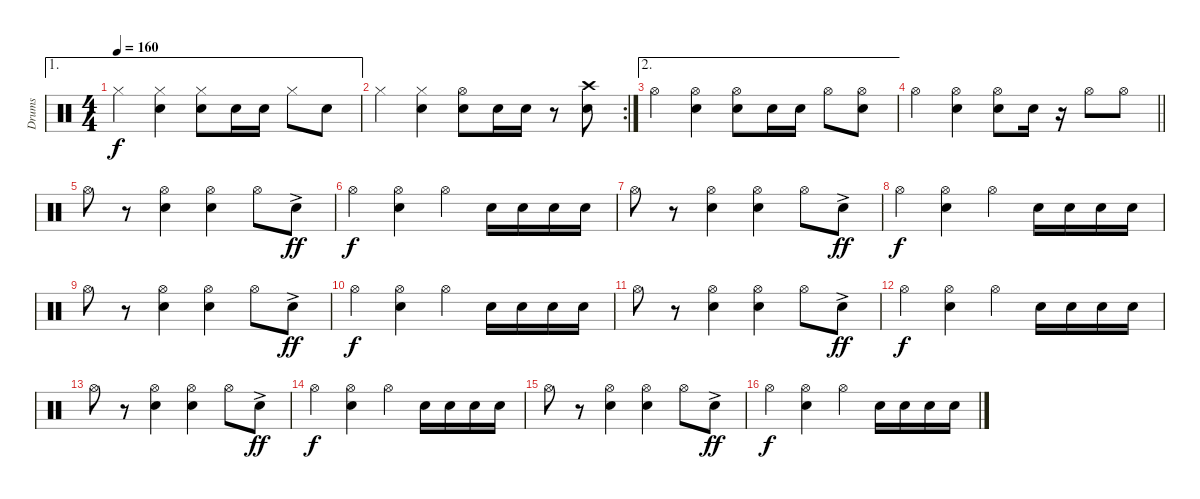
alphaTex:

\track ("Drums" "Drums") {instrument percussion}
\staff {score}
\articulation defaults
\ae 1
\ts (4 4)
\tempo 160
\clef neutral
\ks c "Hi-Hat (closed)".4{dy f}
("Hi-Hat (closed)" "Electric Snare (hit)").4 ("Hi-Hat (closed)" "Electric Snare (hit)").8 "Electric Snare (hit)".16 "Electric Snare (hit)".16 "Hi-Hat (closed)".8 "Electric Snare (hit)".8 |
\rc 2 "Hi-Hat (closed)".4
("Hi-Hat (closed)" "Electric Snare (hit)").4 ("Hi-Hat (open)" "Electric Snare (hit)").8 "Electric Snare (hit)".16 "Electric Snare (hit)".16 r.8 ("Crash high (hit)" "Electric Snare (hit)").8 |
\ae 2 "Hi-Hat (open)".4
("Hi-Hat (open)" "Electric Snare (hit)").4 ("Hi-Hat (open)" "Electric Snare (hit)").8 "Electric Snare (hit)".16 "Electric Snare (hit)".16 "Hi-Hat (open)".8 ("Hi-Hat (open)" "Electric Snare (hit)").8 |
\barLineRight lightlight "Hi-Hat (open)".4
("Hi-Hat (open)" "Electric Snare (hit)").4 ("Hi-Hat (open)" "Electric Snare (hit)").8 "Electric Snare (hit)".16 r.16 "Hi-Hat (open)".8 "Hi-Hat (open)".8 |
"Hi-Hat (open)".8 r.8 ("Hi-Hat (open)" "Electric Snare (hit)").4 ("Hi-Hat (open)" "Electric Snare (hit)").4 "Hi-Hat (open)".8 "Electric Snare (hit)"{ac}.8{dy ff} |
"Hi-Hat (open)".4{dy f} ("Hi-Hat (open)" "Electric Snare (hit)").4 "Hi-Hat (open)".4 "Electric Snare (hit)".16 "Electric Snare (hit)".16 "Electric Snare (hit)".16 "Electric Snare (hit)".16 |
"Hi-Hat (open)".8 r.8 ("Hi-Hat (open)" "Electric Snare (hit)").4 ("Hi-Hat (open)" "Electric Snare (hit)").4 "Hi-Hat (open)".8 "Electric Snare (hit)"{ac}.8{dy ff} |
"Hi-Hat (open)".4{dy f} ("Hi-Hat (open)" "Electric Snare (hit)").4 "Hi-Hat (open)".4 "Electric Snare (hit)".16 "Electric Snare (hit)".16 "Electric Snare (hit)".16 "Electric Snare (hit)".16 |
"Hi-Hat (open)".8 r.8 ("Hi-Hat (open)" "Electric Snare (hit)").4 ("Hi-Hat (open)" "Electric Snare (hit)").4 "Hi-Hat (open)".8 "Electric Snare (hit)"{ac}.8{dy ff} |
"Hi-Hat (open)".4{dy f} ("Hi-Hat (open)" "Electric Snare (hit)").4 "Hi-Hat (open)".4 "Electric Snare (hit)".16 "Electric Snare (hit)".16 "Electric Snare (hit)".16 "Electric Snare (hit)".16 |
"Hi-Hat (open)".8 r.8 ("Hi-Hat (open)" "Electric Snare (hit)").4 ("Hi-Hat (open)" "Electric Snare (hit)").4 "Hi-Hat (open)".8 "Electric Snare (hit)"{ac}.8{dy ff} |
"Hi-Hat (open)".4{dy f} ("Hi-Hat (open)" "Electric Snare (hit)").4 "Hi-Hat (open)".4 "Electric Snare (hit)".16 "Electric Snare (hit)".16 "Electric Snare (hit)".16 "Electric Snare (hit)".16 |
"Hi-Hat (open)".8 r.8 ("Hi-Hat (open)" "Electric Snare (hit)").4 ("Hi-Hat (open)" "Electric Snare (hit)").4 "Hi-Hat (open)".8 "Electric Snare (hit)"{ac}.8{dy ff} |
"Hi-Hat (open)".4{dy f} ("Hi-Hat (open)" "Electric Snare (hit)").4 "Hi-Hat (open)".4 "Electric Snare (hit)".16 "Electric Snare (hit)".16 "Electric Snare (hit)".16 "Electric Snare (hit)".16 |
"Hi-Hat (open)".8 r.8 ("Hi-Hat (open)" "Electric Snare (hit)").4 ("Hi-Hat (open)" "Electric Snare (hit)").4 "Hi-Hat (open)".8 "Electric Snare (hit)"{ac}.8{dy ff} |
"Hi-Hat (open)".4{dy f} ("Hi-Hat (open)" "Electric Snare (hit)").4 "Hi-Hat (open)".4 "Electric Snare (hit)".16 "Electric Snare (hit)".16 "Electric Snare (hit)".16 "Electric Snare (hit)".16
